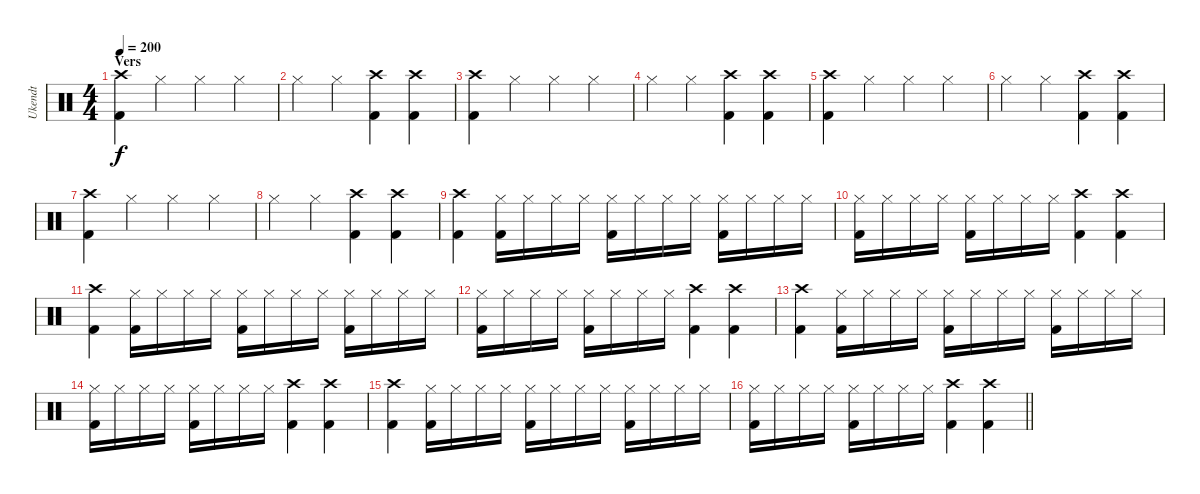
\track ("Ukendt" "Ukendt") {instrument percussion}
\staff {score}
\articulation defaults
\ts (4 4)
\section ("" "Vers")
\tempo 200
\clef neutral
\ks c
("Kick (hit) 2" "Crash high (hit)").4{dy f} "Hi-Hat (closed)".4 "Hi-Hat (closed)".4 "Hi-Hat (closed)".4 |
"Hi-Hat (closed)".4 "Hi-Hat (closed)".4 ("Kick (hit) 2" "Crash high (hit)").4 ("Kick (hit) 2" "Crash high (hit)").4 |
("Kick (hit) 2" "Crash high (hit)").4 "Hi-Hat (closed)".4 "Hi-Hat (closed)".4 "Hi-Hat (closed)".4 |
"Hi-Hat (closed)".4 "Hi-Hat (closed)".4 ("Kick (hit) 2" "Crash high (hit)").4 ("Kick (hit) 2" "Crash high (hit)").4 |
("Kick (hit) 2" "Crash high (hit)").4 "Hi-Hat (closed)".4 "Hi-Hat (closed)".4 "Hi-Hat (closed)".4 |
"Hi-Hat (closed)".4 "Hi-Hat (closed)".4 ("Kick (hit) 2" "Crash high (hit)").4 ("Kick (hit) 2" "Crash high (hit)").4 |
("Kick (hit) 2" "Crash high (hit)").4 "Hi-Hat (closed)".4 "Hi-Hat (closed)".4 "Hi-Hat (closed)".4 |
"Hi-Hat (closed)".4 "Hi-Hat (closed)".4 ("Kick (hit) 2" "Crash high (hit)").4 ("Kick (hit) 2" "Crash high (hit)").4 |
("Kick (hit) 2" "Crash high (hit)").4 ("Kick (hit) 2" "Hi-Hat (closed)").16 "Hi-Hat (closed)".16 "Hi-Hat (closed)".16 "Hi-Hat (closed)".16 ("Kick (hit) 2" "Hi-Hat (closed)").16 "Hi-Hat (closed)".16 "Hi-Hat (closed)".16 "Hi-Hat (closed)".16 ("Kick (hit) 2" "Hi-Hat (closed)").16 "Hi-Hat (closed)".16 "Hi-Hat (closed)".16 "Hi-Hat (closed)".16 |
("Kick (hit) 2" "Hi-Hat (closed)").16 "Hi-Hat (closed)".16 "Hi-Hat (closed)".16 "Hi-Hat (closed)".16 ("Kick (hit) 2" "Hi-Hat (closed)").16 "Hi-Hat (closed)".16 "Hi-Hat (closed)".16 "Hi-Hat (closed)".16 ("Kick (hit) 2" "Crash high (hit)").4 ("Kick (hit) 2" "Crash high (hit)").4 |
("Kick (hit) 2" "Crash high (hit)").4 ("Kick (hit) 2" "Hi-Hat (closed)").16 "Hi-Hat (closed)".16 "Hi-Hat (closed)".16 "Hi-Hat (closed)".16 ("Kick (hit) 2" "Hi-Hat (closed)").16 "Hi-Hat (closed)".16 "Hi-Hat (closed)".16 "Hi-Hat (closed)".16 ("Kick (hit) 2" "Hi-Hat (closed)").16 "Hi-Hat (closed)".16 "Hi-Hat (closed)".16 "Hi-Hat (closed)".16 |
("Kick (hit) 2" "Hi-Hat (closed)").16 "Hi-Hat (closed)".16 "Hi-Hat (closed)".16 "Hi-Hat (closed)".16 ("Kick (hit) 2" "Hi-Hat (closed)").16 "Hi-Hat (closed)".16 "Hi-Hat (closed)".16 "Hi-Hat (closed)".16 ("Kick (hit) 2" "Crash high (hit)").4 ("Kick (hit) 2" "Crash high (hit)").4 |
("Kick (hit) 2" "Crash high (hit)").4 ("Kick (hit) 2" "Hi-Hat (closed)").16 "Hi-Hat (closed)".16 "Hi-Hat (closed)".16 "Hi-Hat (closed)".16 ("Kick (hit) 2" "Hi-Hat (closed)").16 "Hi-Hat (closed)".16 "Hi-Hat (closed)".16 "Hi-Hat (closed)".16 ("Kick (hit) 2" "Hi-Hat (closed)").16 "Hi-Hat (closed)".16 "Hi-Hat (closed)".16 "Hi-Hat (closed)".16 |
("Kick (hit) 2" "Hi-Hat (closed)").16 "Hi-Hat (closed)".16 "Hi-Hat (closed)".16 "Hi-Hat (closed)".16 ("Kick (hit) 2" "Hi-Hat (closed)").16 "Hi-Hat (closed)".16 "Hi-Hat (closed)".16 "Hi-Hat (closed)".16 ("Kick (hit) 2" "Crash high (hit)").4 ("Kick (hit) 2" "Crash high (hit)").4 |
("Kick (hit) 2" "Crash high (hit)").4 ("Kick (hit) 2" "Hi-Hat (closed)").16 "Hi-Hat (closed)".16 "Hi-Hat (closed)".16 "Hi-Hat (closed)".16 ("Kick (hit) 2" "Hi-Hat (closed)").16 "Hi-Hat (closed)".16 "Hi-Hat (closed)".16 "Hi-Hat (closed)".16 ("Kick (hit) 2" "Hi-Hat (closed)").16 "Hi-Hat (closed)".16 "Hi-Hat (closed)".16 "Hi-Hat (closed)".16 |
\barLineRight lightlight
("Kick (hit) 2" "Hi-Hat (closed)").16 "Hi-Hat (closed)".16 "Hi-Hat (closed)".16 "Hi-Hat (closed)".16 ("Kick (hit) 2" "Hi-Hat (closed)").16 "Hi-Hat (closed)".16 "Hi-Hat (closed)".16 "Hi-Hat (closed)".16 ("Kick (hit) 2" "Crash high (hit)").4 ("Kick (hit) 2" "Crash high (hit)").4
